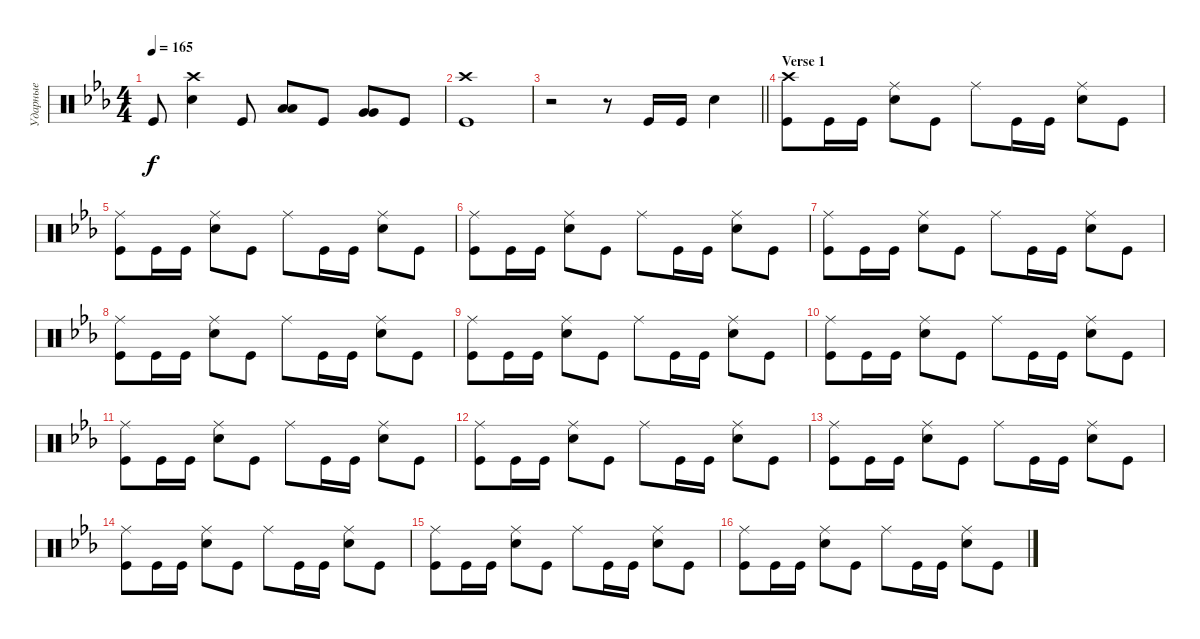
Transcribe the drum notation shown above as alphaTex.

\track ("Ударные" "Ударные") {instrument percussion}
\staff {score}
\articulation defaults
\ts (4 4)
\tempo 165
\clef neutral
\ks cminor "Kick (hit)".8{dy f}
("Snare (hit) 2" "Crash high (hit)").4 "Kick (hit)".8 ("Low Tom (hit)" "Low Tom (hit)").8{bd 240} "Kick (hit)".8 ("Very Low Tom (hit)" "Very Low Tom (hit)").8{bd 240} "Kick (hit)".8 |
("Kick (hit)" "Crash high (hit)").1 |
\barLineRight lightlight
r.2 r.8 "Kick (hit)".16 "Kick (hit)".16 "Snare (hit) 2".4 |
\section ("" "Verse 1")
("Kick (hit)" "Crash high (hit)").8 "Kick (hit)".16 "Kick (hit)".16 ("Snare (hit) 2" "Ride (middle)").8 "Kick (hit)".8 "Ride (middle)".8 "Kick (hit)".16 "Kick (hit)".16 ("Snare (hit) 2" "Ride (middle)").8 "Kick (hit)".8 |
("Kick (hit)" "Ride (middle)").8 "Kick (hit)".16 "Kick (hit)".16 ("Snare (hit) 2" "Ride (middle)").8 "Kick (hit)".8 "Ride (middle)".8 "Kick (hit)".16 "Kick (hit)".16 ("Snare (hit) 2" "Ride (middle)").8 "Kick (hit)".8 |
("Kick (hit)" "Ride (middle)").8 "Kick (hit)".16 "Kick (hit)".16 ("Snare (hit) 2" "Ride (middle)").8 "Kick (hit)".8 "Ride (middle)".8 "Kick (hit)".16 "Kick (hit)".16 ("Snare (hit) 2" "Ride (middle)").8 "Kick (hit)".8 |
("Kick (hit)" "Ride (middle)").8 "Kick (hit)".16 "Kick (hit)".16 ("Snare (hit) 2" "Ride (middle)").8 "Kick (hit)".8 "Ride (middle)".8 "Kick (hit)".16 "Kick (hit)".16 ("Snare (hit) 2" "Ride (middle)").8 "Kick (hit)".8 |
("Kick (hit)" "Ride (middle)").8 "Kick (hit)".16 "Kick (hit)".16 ("Snare (hit) 2" "Ride (middle)").8 "Kick (hit)".8 "Ride (middle)".8 "Kick (hit)".16 "Kick (hit)".16 ("Snare (hit) 2" "Ride (middle)").8 "Kick (hit)".8 |
("Kick (hit)" "Ride (middle)").8 "Kick (hit)".16 "Kick (hit)".16 ("Snare (hit) 2" "Ride (middle)").8 "Kick (hit)".8 "Ride (middle)".8 "Kick (hit)".16 "Kick (hit)".16 ("Snare (hit) 2" "Ride (middle)").8 "Kick (hit)".8 |
("Kick (hit)" "Ride (middle)").8 "Kick (hit)".16 "Kick (hit)".16 ("Snare (hit) 2" "Ride (middle)").8 "Kick (hit)".8 "Ride (middle)".8 "Kick (hit)".16 "Kick (hit)".16 ("Snare (hit) 2" "Ride (middle)").8 "Kick (hit)".8 |
("Kick (hit)" "Ride (middle)").8 "Kick (hit)".16 "Kick (hit)".16 ("Snare (hit) 2" "Ride (middle)").8 "Kick (hit)".8 "Ride (middle)".8 "Kick (hit)".16 "Kick (hit)".16 ("Snare (hit) 2" "Ride (middle)").8 "Kick (hit)".8 |
("Kick (hit)" "Ride (middle)").8 "Kick (hit)".16 "Kick (hit)".16 ("Snare (hit) 2" "Ride (middle)").8 "Kick (hit)".8 "Ride (middle)".8 "Kick (hit)".16 "Kick (hit)".16 ("Snare (hit) 2" "Ride (middle)").8 "Kick (hit)".8 |
("Kick (hit)" "Ride (middle)").8 "Kick (hit)".16 "Kick (hit)".16 ("Snare (hit) 2" "Ride (middle)").8 "Kick (hit)".8 "Ride (middle)".8 "Kick (hit)".16 "Kick (hit)".16 ("Snare (hit) 2" "Ride (middle)").8 "Kick (hit)".8 |
("Kick (hit)" "Ride (middle)").8 "Kick (hit)".16 "Kick (hit)".16 ("Snare (hit) 2" "Ride (middle)").8 "Kick (hit)".8 "Ride (middle)".8 "Kick (hit)".16 "Kick (hit)".16 ("Snare (hit) 2" "Ride (middle)").8 "Kick (hit)".8 |
("Kick (hit)" "Ride (middle)").8 "Kick (hit)".16 "Kick (hit)".16 ("Snare (hit) 2" "Ride (middle)").8 "Kick (hit)".8 "Ride (middle)".8 "Kick (hit)".16 "Kick (hit)".16 ("Snare (hit) 2" "Ride (middle)").8 "Kick (hit)".8 |
("Kick (hit)" "Ride (middle)").8 "Kick (hit)".16 "Kick (hit)".16 ("Snare (hit) 2" "Ride (middle)").8 "Kick (hit)".8 "Ride (middle)".8 "Kick (hit)".16 "Kick (hit)".16 ("Snare (hit) 2" "Ride (middle)").8 "Kick (hit)".8
